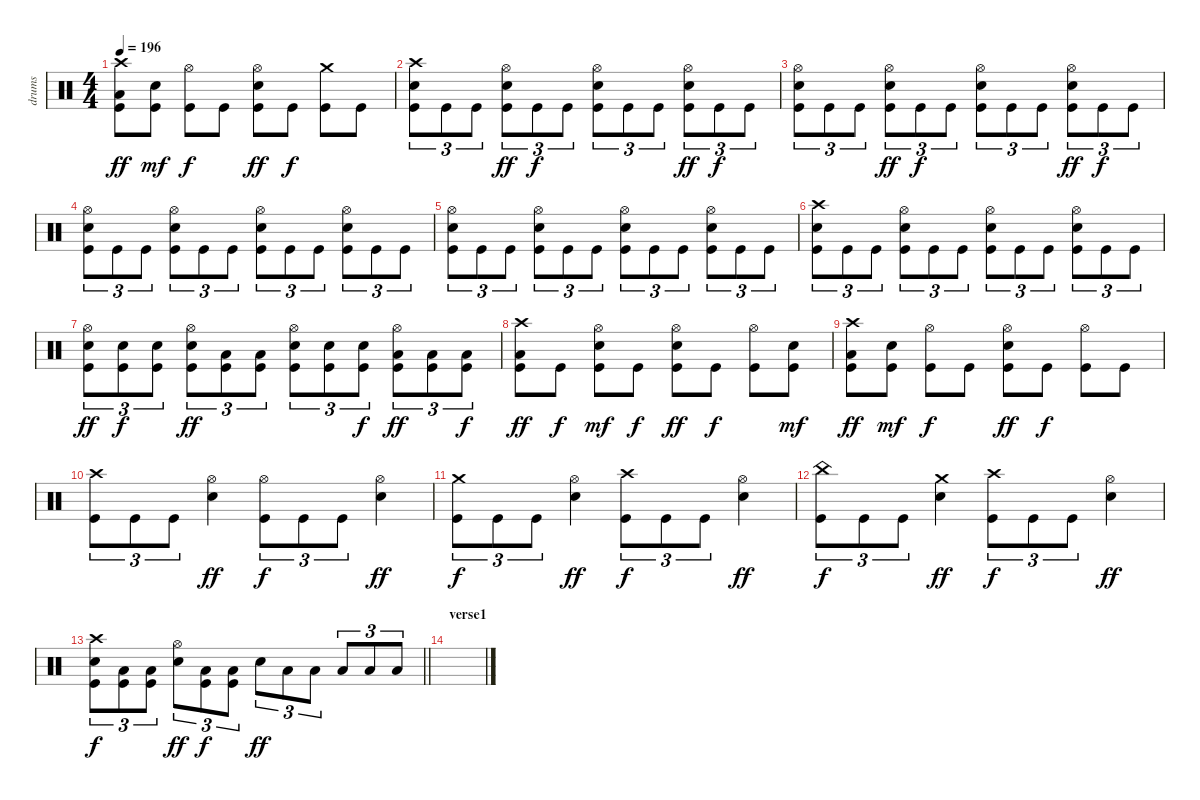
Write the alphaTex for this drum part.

\track ("drums" "drums") {instrument percussion}
\staff {score}
\articulation defaults
\ts (4 4)
\tempo 196
\clef neutral
\ks c
("Crash high (hit)" "Low Floor Tom (hit)" "Kick (hit)").8{dy ff} ("Electric Snare (hit)" "Kick (hit)").8{dy mf} ("Hi-Hat (open)" "Kick (hit)").8{dy f} "Kick (hit)".8 ("Hi-Hat (open)" "Electric Snare (hit)" "Kick (hit)").8{dy ff} "Kick (hit)".8{dy f} ("Crash medium (hit)" "Kick (hit)").8 "Kick (hit)".8 |
("Crash high (hit)" "Electric Snare (hit)" "Kick (hit)").8{tu (3 2)} "Kick (hit)".8{tu (3 2)} "Kick (hit)".8{tu (3 2)} ("Hi-Hat (open)" "Electric Snare (hit)" "Kick (hit)").8{tu (3 2) dy ff} "Kick (hit)".8{tu (3 2) dy f} "Kick (hit)".8{tu (3 2)} ("Hi-Hat (open)" "Electric Snare (hit)" "Kick (hit)").8{tu (3 2)} "Kick (hit)".8{tu (3 2)} "Kick (hit)".8{tu (3 2)} ("Hi-Hat (open)" "Electric Snare (hit)" "Kick (hit)").8{tu (3 2) dy ff} "Kick (hit)".8{tu (3 2) dy f} "Kick (hit)".8{tu (3 2)} |
("Hi-Hat (open)" "Electric Snare (hit)" "Kick (hit)").8{tu (3 2)} "Kick (hit)".8{tu (3 2)} "Kick (hit)".8{tu (3 2)} ("Hi-Hat (open)" "Electric Snare (hit)" "Kick (hit)").8{tu (3 2) dy ff} "Kick (hit)".8{tu (3 2) dy f} "Kick (hit)".8{tu (3 2)} ("Hi-Hat (open)" "Electric Snare (hit)" "Kick (hit)").8{tu (3 2)} "Kick (hit)".8{tu (3 2)} "Kick (hit)".8{tu (3 2)} ("Hi-Hat (open)" "Electric Snare (hit)" "Kick (hit)").8{tu (3 2) dy ff} "Kick (hit)".8{tu (3 2) dy f} "Kick (hit)".8{tu (3 2)} |
("Hi-Hat (open)" "Electric Snare (hit)" "Kick (hit)").8{tu (3 2)} "Kick (hit)".8{tu (3 2)} "Kick (hit)".8{tu (3 2)} ("Hi-Hat (open)" "Electric Snare (hit)" "Kick (hit)").8{tu (3 2)} "Kick (hit)".8{tu (3 2)} "Kick (hit)".8{tu (3 2)} ("Hi-Hat (open)" "Electric Snare (hit)" "Kick (hit)").8{tu (3 2)} "Kick (hit)".8{tu (3 2)} "Kick (hit)".8{tu (3 2)} ("Hi-Hat (open)" "Electric Snare (hit)" "Kick (hit)").8{tu (3 2)} "Kick (hit)".8{tu (3 2)} "Kick (hit)".8{tu (3 2)} |
("Hi-Hat (open)" "Electric Snare (hit)" "Kick (hit)").8{tu (3 2)} "Kick (hit)".8{tu (3 2)} "Kick (hit)".8{tu (3 2)} ("Hi-Hat (open)" "Electric Snare (hit)" "Kick (hit)").8{tu (3 2)} "Kick (hit)".8{tu (3 2)} "Kick (hit)".8{tu (3 2)} ("Hi-Hat (open)" "Electric Snare (hit)" "Kick (hit)").8{tu (3 2)} "Kick (hit)".8{tu (3 2)} "Kick (hit)".8{tu (3 2)} ("Hi-Hat (open)" "Electric Snare (hit)" "Kick (hit)").8{tu (3 2)} "Kick (hit)".8{tu (3 2)} "Kick (hit)".8{tu (3 2)} |
("Crash high (hit)" "Electric Snare (hit)" "Kick (hit)").8{tu (3 2)} "Kick (hit)".8{tu (3 2)} "Kick (hit)".8{tu (3 2)} ("Hi-Hat (open)" "Electric Snare (hit)" "Kick (hit)").8{tu (3 2)} "Kick (hit)".8{tu (3 2)} "Kick (hit)".8{tu (3 2)} ("Hi-Hat (open)" "Electric Snare (hit)" "Kick (hit)").8{tu (3 2)} "Kick (hit)".8{tu (3 2)} "Kick (hit)".8{tu (3 2)} ("Hi-Hat (open)" "Electric Snare (hit)" "Kick (hit)").8{tu (3 2)} "Kick (hit)".8{tu (3 2)} "Kick (hit)".8{tu (3 2)} |
("Hi-Hat (open)" "Electric Snare (hit)" "Kick (hit)").8{tu (3 2) dy ff} ("Electric Snare (hit)" "Kick (hit)").8{tu (3 2) dy f} ("Electric Snare (hit)" "Kick (hit)").8{tu (3 2)} ("Hi-Hat (open)" "Electric Snare (hit)" "Kick (hit)").8{tu (3 2) dy ff} ("Low Tom (hit)" "Kick (hit)").8{tu (3 2)} ("Low Tom (hit)" "Kick (hit)").8{tu (3 2)} ("Hi-Hat (open)" "Electric Snare (hit)" "Kick (hit)").8{tu (3 2)} ("Electric Snare (hit)" "Kick (hit)").8{tu (3 2)} ("Electric Snare (hit)" "Kick (hit)").8{tu (3 2) dy f} ("Hi-Hat (open)" "Low Floor Tom (hit)" "Kick (hit)").8{tu (3 2) dy ff} ("Low Floor Tom (hit)" "Kick (hit)").8{tu (3 2)} ("Low Floor Tom (hit)" "Kick (hit)").8{tu (3 2) dy f} |
("Crash high (hit)" "Low Floor Tom (hit)" "Kick (hit)").8{dy ff} "Kick (hit)".8{dy f} ("Hi-Hat (open)" "Electric Snare (hit)" "Kick (hit)").8{dy mf} "Kick (hit)".8{dy f} ("Hi-Hat (open)" "Electric Snare (hit)" "Kick (hit)").8{dy ff} "Kick (hit)".8{dy f} ("Hi-Hat (open)" "Kick (hit)").8 ("Electric Snare (hit)" "Kick (hit)").8{dy mf} |
("Crash high (hit)" "Low Floor Tom (hit)" "Kick (hit)").8{dy ff} ("Electric Snare (hit)" "Kick (hit)").8{dy mf} ("Hi-Hat (open)" "Kick (hit)").8{dy f} "Kick (hit)".8 ("Hi-Hat (open)" "Electric Snare (hit)" "Kick (hit)").8{dy ff} "Kick (hit)".8{dy f} ("Hi-Hat (open)" "Kick (hit)").8 "Kick (hit)".8 |
("Crash high (hit)" "Kick (hit)").8{tu (3 2)} "Kick (hit)".8{tu (3 2)} "Kick (hit)".8{tu (3 2)} ("Hi-Hat (open)" "Electric Snare (hit)").4{dy ff} ("Hi-Hat (open)" "Kick (hit)").8{tu (3 2) dy f} "Kick (hit)".8{tu (3 2)} "Kick (hit)".8{tu (3 2)} ("Hi-Hat (open)" "Electric Snare (hit)").4{dy ff} |
("Crash medium (hit)" "Kick (hit)").8{tu (3 2) dy f} "Kick (hit)".8{tu (3 2)} "Kick (hit)".8{tu (3 2)} ("Hi-Hat (open)" "Electric Snare (hit)").4{dy ff} ("Crash high (hit)" "Kick (hit)").8{tu (3 2) dy f} "Kick (hit)".8{tu (3 2)} "Kick (hit)".8{tu (3 2)} ("Hi-Hat (open)" "Electric Snare (hit)").4{dy ff} |
("China (hit)" "Kick (hit)").8{tu (3 2) dy f} "Kick (hit)".8{tu (3 2)} "Kick (hit)".8{tu (3 2)} ("Crash medium (hit)" "Electric Snare (hit)").4{dy ff} ("Crash high (hit)" "Kick (hit)").8{tu (3 2) dy f} "Kick (hit)".8{tu (3 2)} "Kick (hit)".8{tu (3 2)} ("Hi-Hat (open)" "Electric Snare (hit)").4{dy ff} |
\barLineRight lightlight
("Crash high (hit)" "Electric Snare (hit)" "Kick (hit)").8{tu (3 2) dy f} ("Low Tom (hit)" "Kick (hit)").8{tu (3 2)} ("Low Floor Tom (hit)" "Kick (hit)").8{tu (3 2)} ("Hi-Hat (open)" "Electric Snare (hit)").8{tu (3 2) dy ff} ("Low Tom (hit)" "Kick (hit)").8{tu (3 2) dy f} ("Low Floor Tom (hit)" "Kick (hit)").8{tu (3 2)} "Electric Snare (hit)".8{tu (3 2) dy ff} "Low Tom (hit)".8{tu (3 2)} "Low Tom (hit)".8{tu (3 2)} "Low Floor Tom (hit)".8{tu (3 2)} "Low Floor Tom (hit)".8{tu (3 2)} "Low Floor Tom (hit)".8{tu (3 2)} |
\section ("" "verse1")
